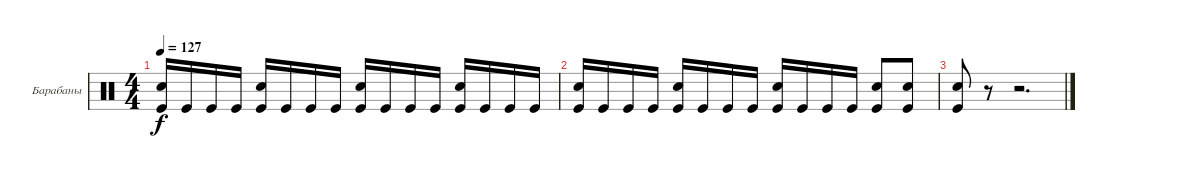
\bracketExtendMode groupsimilarinstruments
\firstSystemTrackNameOrientation horizontal
\otherSystemsTrackNameOrientation horizontal
\track ("Ударные" "Барабаны") {instrument percussion}
\staff {score}
\articulation defaults
\ts (4 4)
\tempo 127
\clef neutral
\ks c
("Kick (hit)" "Snare (hit) 2").16{dy f} "Kick (hit)".16 "Kick (hit)".16 "Kick (hit)".16 ("Kick (hit)" "Snare (hit) 2").16 "Kick (hit)".16 "Kick (hit)".16 "Kick (hit)".16 ("Kick (hit)" "Snare (hit) 2").16 "Kick (hit)".16 "Kick (hit)".16 "Kick (hit)".16 ("Kick (hit)" "Snare (hit) 2").16 "Kick (hit)".16 "Kick (hit)".16 "Kick (hit)".16 |
("Kick (hit)" "Snare (hit) 2").16 "Kick (hit)".16 "Kick (hit)".16 "Kick (hit)".16 ("Kick (hit)" "Snare (hit) 2").16 "Kick (hit)".16 "Kick (hit)".16 "Kick (hit)".16 ("Kick (hit)" "Snare (hit) 2").16 "Kick (hit)".16 "Kick (hit)".16 "Kick (hit)".16 ("Kick (hit)" "Snare (hit) 2").8 ("Kick (hit)" "Snare (hit) 2").8 |
("Kick (hit)" "Snare (hit) 2").8 r.8 r.2{d}
